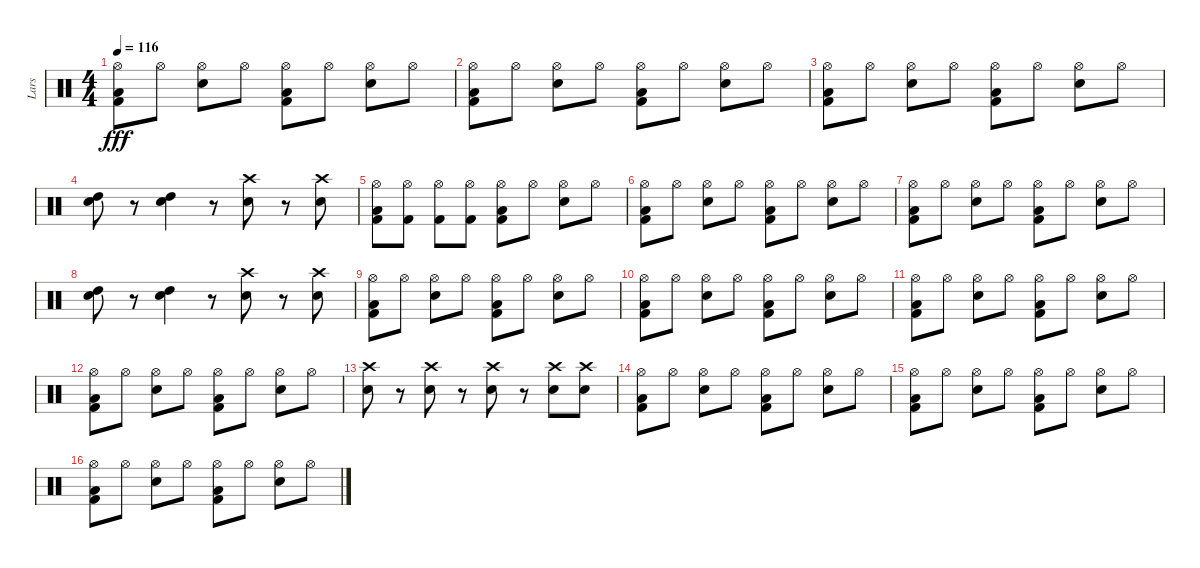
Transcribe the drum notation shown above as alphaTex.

\track ("Lars" "Lars") {instrument percussion}
\staff {score}
\articulation defaults
\ts (4 4)
\tempo 116
\clef neutral
\ks c
("Low Floor Tom (hit)" "Hi-Hat (open)" "Kick (hit) 2").8{dy fff} "Hi-Hat (open)".8 ("Hi-Hat (open)" "Electric Snare (hit)").8 "Hi-Hat (open)".8 ("Low Floor Tom (hit)" "Hi-Hat (open)" "Kick (hit) 2").8 "Hi-Hat (open)".8 ("Hi-Hat (open)" "Electric Snare (hit)").8 "Hi-Hat (open)".8 |
("Low Floor Tom (hit)" "Hi-Hat (open)" "Kick (hit) 2").8 "Hi-Hat (open)".8 ("Hi-Hat (open)" "Electric Snare (hit)").8 "Hi-Hat (open)".8 ("Low Floor Tom (hit)" "Hi-Hat (open)" "Kick (hit) 2").8 "Hi-Hat (open)".8 ("Hi-Hat (open)" "Electric Snare (hit)").8 "Hi-Hat (open)".8 |
("Low Floor Tom (hit)" "Hi-Hat (open)" "Kick (hit) 2").8 "Hi-Hat (open)".8 ("Hi-Hat (open)" "Electric Snare (hit)").8 "Hi-Hat (open)".8 ("Low Floor Tom (hit)" "Hi-Hat (open)" "Kick (hit) 2").8 "Hi-Hat (open)".8 ("Hi-Hat (open)" "Electric Snare (hit)").8 "Hi-Hat (open)".8 |
("High Tom (hit)" "Electric Snare (hit)").8 r.8 ("High Tom (hit)" "Electric Snare (hit)").4 r.8 ("Crash high (hit)" "Electric Snare (hit)").8 r.8 ("Crash high (hit)" "Electric Snare (hit)").8 |
("Low Floor Tom (hit)" "Hi-Hat (open)" "Kick (hit) 2").8 ("Hi-Hat (open)" "Kick (hit) 2").8 ("Hi-Hat (open)" "Kick (hit) 2").8 ("Hi-Hat (open)" "Kick (hit) 2").8 ("Low Floor Tom (hit)" "Hi-Hat (open)" "Kick (hit) 2").8 "Hi-Hat (open)".8 ("Hi-Hat (open)" "Electric Snare (hit)").8 "Hi-Hat (open)".8 |
("Low Floor Tom (hit)" "Hi-Hat (open)" "Kick (hit) 2").8 "Hi-Hat (open)".8 ("Hi-Hat (open)" "Electric Snare (hit)").8 "Hi-Hat (open)".8 ("Low Floor Tom (hit)" "Hi-Hat (open)" "Kick (hit) 2").8 "Hi-Hat (open)".8 ("Hi-Hat (open)" "Electric Snare (hit)").8 "Hi-Hat (open)".8 |
("Low Floor Tom (hit)" "Hi-Hat (open)" "Kick (hit) 2").8 "Hi-Hat (open)".8 ("Hi-Hat (open)" "Electric Snare (hit)").8 "Hi-Hat (open)".8 ("Low Floor Tom (hit)" "Hi-Hat (open)" "Kick (hit) 2").8 "Hi-Hat (open)".8 ("Hi-Hat (open)" "Electric Snare (hit)").8 "Hi-Hat (open)".8 |
("High Tom (hit)" "Electric Snare (hit)").8 r.8 ("High Tom (hit)" "Electric Snare (hit)").4 r.8 ("Crash high (hit)" "Electric Snare (hit)").8 r.8 ("Crash high (hit)" "Electric Snare (hit)").8 |
("Low Floor Tom (hit)" "Hi-Hat (open)" "Kick (hit) 2").8 "Hi-Hat (open)".8 ("Hi-Hat (open)" "Electric Snare (hit)").8 "Hi-Hat (open)".8 ("Low Floor Tom (hit)" "Hi-Hat (open)" "Kick (hit) 2").8 "Hi-Hat (open)".8 ("Hi-Hat (open)" "Electric Snare (hit)").8 "Hi-Hat (open)".8 |
("Low Floor Tom (hit)" "Hi-Hat (open)" "Kick (hit) 2").8 "Hi-Hat (open)".8 ("Hi-Hat (open)" "Electric Snare (hit)").8 "Hi-Hat (open)".8 ("Low Floor Tom (hit)" "Hi-Hat (open)" "Kick (hit) 2").8 "Hi-Hat (open)".8 ("Hi-Hat (open)" "Electric Snare (hit)").8 "Hi-Hat (open)".8 |
("Low Floor Tom (hit)" "Hi-Hat (open)" "Kick (hit) 2").8 "Hi-Hat (open)".8 ("Hi-Hat (open)" "Electric Snare (hit)").8 "Hi-Hat (open)".8 ("Low Floor Tom (hit)" "Hi-Hat (open)" "Kick (hit) 2").8 "Hi-Hat (open)".8 ("Hi-Hat (open)" "Electric Snare (hit)").8 "Hi-Hat (open)".8 |
("Low Floor Tom (hit)" "Hi-Hat (open)" "Kick (hit) 2").8 "Hi-Hat (open)".8 ("Hi-Hat (open)" "Electric Snare (hit)").8 "Hi-Hat (open)".8 ("Low Floor Tom (hit)" "Hi-Hat (open)" "Kick (hit) 2").8 "Hi-Hat (open)".8 ("Hi-Hat (open)" "Electric Snare (hit)").8 "Hi-Hat (open)".8 |
("Crash high (hit)" "Electric Snare (hit)").8 r.8 ("Crash high (hit)" "Electric Snare (hit)").8 r.8 ("Crash high (hit)" "Electric Snare (hit)").8 r.8 ("Crash high (hit)" "Electric Snare (hit)").8 ("Crash high (hit)" "Electric Snare (hit)").8 |
("Low Floor Tom (hit)" "Hi-Hat (open)" "Kick (hit) 2").8 "Hi-Hat (open)".8 ("Hi-Hat (open)" "Electric Snare (hit)").8 "Hi-Hat (open)".8 ("Low Floor Tom (hit)" "Hi-Hat (open)" "Kick (hit) 2").8 "Hi-Hat (open)".8 ("Hi-Hat (open)" "Electric Snare (hit)").8 "Hi-Hat (open)".8 |
("Low Floor Tom (hit)" "Hi-Hat (open)" "Kick (hit) 2").8 "Hi-Hat (open)".8 ("Hi-Hat (open)" "Electric Snare (hit)").8 "Hi-Hat (open)".8 ("Low Floor Tom (hit)" "Hi-Hat (open)" "Kick (hit) 2").8 "Hi-Hat (open)".8 ("Hi-Hat (open)" "Electric Snare (hit)").8 "Hi-Hat (open)".8 |
("Low Floor Tom (hit)" "Hi-Hat (open)" "Kick (hit) 2").8 "Hi-Hat (open)".8 ("Hi-Hat (open)" "Electric Snare (hit)").8 "Hi-Hat (open)".8 ("Low Floor Tom (hit)" "Hi-Hat (open)" "Kick (hit) 2").8 "Hi-Hat (open)".8 ("Hi-Hat (open)" "Electric Snare (hit)").8 "Hi-Hat (open)".8
